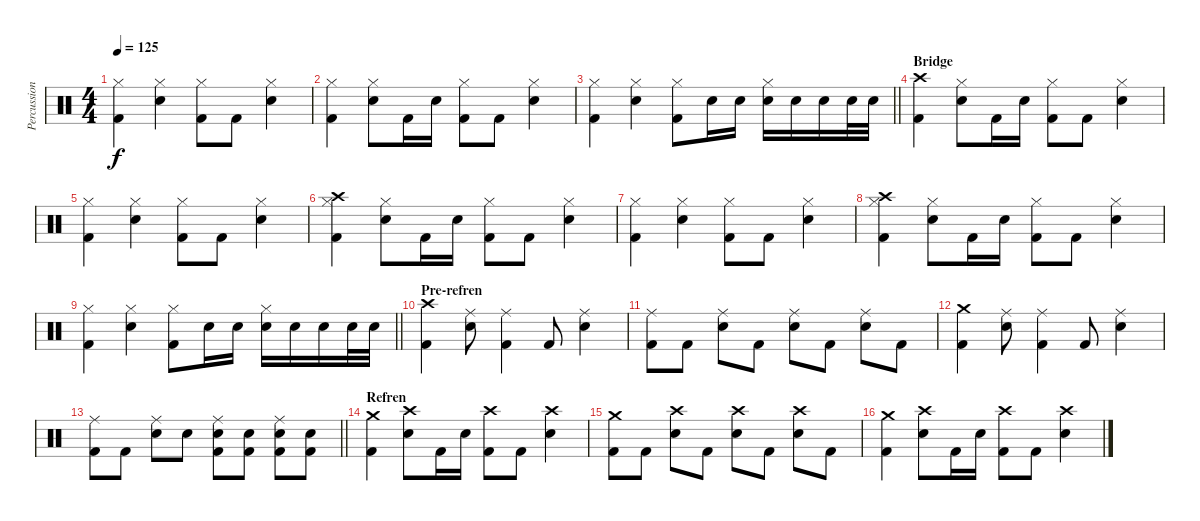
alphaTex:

\track ("Percussion" "Percussion") {instrument percussion}
\staff {score}
\articulation defaults
\ts (4 4)
\tempo 125
\clef neutral
\ks c
("Kick (hit) 2" "Hi-Hat (closed)").4{dy f} ("Electric Snare (hit)" "Hi-Hat (closed)").4 ("Kick (hit) 2" "Hi-Hat (closed)").8 "Kick (hit) 2".8 ("Electric Snare (hit)" "Hi-Hat (closed)").4 |
("Kick (hit) 2" "Hi-Hat (closed)").4 ("Electric Snare (hit)" "Hi-Hat (closed)").8 "Kick (hit) 2".16 "Electric Snare (hit)".16 ("Kick (hit) 2" "Hi-Hat (closed)").8 "Kick (hit) 2".8 ("Electric Snare (hit)" "Hi-Hat (closed)").4 |
\barLineRight lightlight
("Kick (hit) 2" "Hi-Hat (closed)").4 ("Electric Snare (hit)" "Hi-Hat (closed)").4 ("Kick (hit) 2" "Hi-Hat (closed)").8 "Electric Snare (hit)".16 "Electric Snare (hit)".16 ("Electric Snare (hit)" "Hi-Hat (closed)").16 "Electric Snare (hit)".16 "Electric Snare (hit)".16 "Electric Snare (hit)".32 "Electric Snare (hit)".32 |
\section ("" "Bridge")
("Kick (hit) 2" "Crash high (hit)").4 ("Electric Snare (hit)" "Hi-Hat (closed)").8 "Kick (hit) 2".16 "Electric Snare (hit)".16 ("Kick (hit) 2" "Hi-Hat (closed)").8 "Kick (hit) 2".8 ("Electric Snare (hit)" "Hi-Hat (closed)").4 |
("Kick (hit) 2" "Hi-Hat (closed)").4 ("Electric Snare (hit)" "Hi-Hat (closed)").4 ("Kick (hit) 2" "Hi-Hat (closed)").8 "Kick (hit) 2".8 ("Electric Snare (hit)" "Hi-Hat (closed)").4 |
("Kick (hit) 2" "Hi-Hat (closed)" "Crash high (hit)").4 ("Electric Snare (hit)" "Hi-Hat (closed)").8 "Kick (hit) 2".16 "Electric Snare (hit)".16 ("Kick (hit) 2" "Hi-Hat (closed)").8 "Kick (hit) 2".8 ("Electric Snare (hit)" "Hi-Hat (closed)").4 |
("Kick (hit) 2" "Hi-Hat (closed)").4 ("Electric Snare (hit)" "Hi-Hat (closed)").4 ("Kick (hit) 2" "Hi-Hat (closed)").8 "Kick (hit) 2".8 ("Electric Snare (hit)" "Hi-Hat (closed)").4 |
("Kick (hit) 2" "Hi-Hat (closed)" "Crash high (hit)").4 ("Electric Snare (hit)" "Hi-Hat (closed)").8 "Kick (hit) 2".16 "Electric Snare (hit)".16 ("Kick (hit) 2" "Hi-Hat (closed)").8 "Kick (hit) 2".8 ("Electric Snare (hit)" "Hi-Hat (closed)").4 |
\barLineRight lightlight
("Kick (hit) 2" "Hi-Hat (closed)").4 ("Electric Snare (hit)" "Hi-Hat (closed)").4 ("Kick (hit) 2" "Hi-Hat (closed)").8 "Electric Snare (hit)".16 "Electric Snare (hit)".16 ("Electric Snare (hit)" "Hi-Hat (closed)").16 "Electric Snare (hit)".16 "Electric Snare (hit)".16 "Electric Snare (hit)".32 "Electric Snare (hit)".32 |
\section ("" "Pre-refren")
("Kick (hit) 2" "Crash high (hit)").4 ("Electric Snare (hit)" "Ride (middle)").8 ("Kick (hit) 2" "Ride (middle)").4 "Kick (hit) 2".8 ("Electric Snare (hit)" "Ride (middle)").4 |
("Kick (hit) 2" "Ride (middle)").8 "Kick (hit) 2".8 ("Electric Snare (hit)" "Ride (middle)").8 "Kick (hit) 2".8 ("Electric Snare (hit)" "Ride (middle)").8 "Kick (hit) 2".8 ("Electric Snare (hit)" "Ride (middle)").8 "Kick (hit) 2".8 |
("Kick (hit) 2" "Crash medium (hit)").4 ("Electric Snare (hit)" "Ride (middle)").8 ("Kick (hit) 2" "Ride (middle)").4 "Kick (hit) 2".8 ("Electric Snare (hit)" "Ride (middle)").4 |
\barLineRight lightlight
("Kick (hit) 2" "Ride (middle)").8 "Kick (hit) 2".8 ("Electric Snare (hit)" "Ride (middle)").8 "Electric Snare (hit)".8 ("Electric Snare (hit)" "Kick (hit) 2" "Ride (middle)").8 ("Electric Snare (hit)" "Kick (hit) 2").8 ("Electric Snare (hit)" "Kick (hit) 2" "Ride (middle)").8 ("Electric Snare (hit)" "Kick (hit) 2").8 |
\section ("" "Refren")
("Kick (hit) 2" "Crash medium (hit)").4 ("Electric Snare (hit)" "Crash high (hit)").8 "Kick (hit) 2".16 "Electric Snare (hit)".16 ("Kick (hit) 2" "Crash high (hit)").8 "Kick (hit) 2".8 ("Electric Snare (hit)" "Crash high (hit)").4 |
("Kick (hit) 2" "Crash medium (hit)").8 "Kick (hit) 2".8 ("Electric Snare (hit)" "Crash high (hit)").8 "Kick (hit) 2".8 ("Electric Snare (hit)" "Crash high (hit)").8 "Kick (hit) 2".8 ("Electric Snare (hit)" "Crash high (hit)").8 "Kick (hit) 2".8 |
("Kick (hit) 2" "Crash medium (hit)").4 ("Electric Snare (hit)" "Crash high (hit)").8 "Kick (hit) 2".16 "Electric Snare (hit)".16 ("Kick (hit) 2" "Crash high (hit)").8 "Kick (hit) 2".8 ("Electric Snare (hit)" "Crash high (hit)").4
